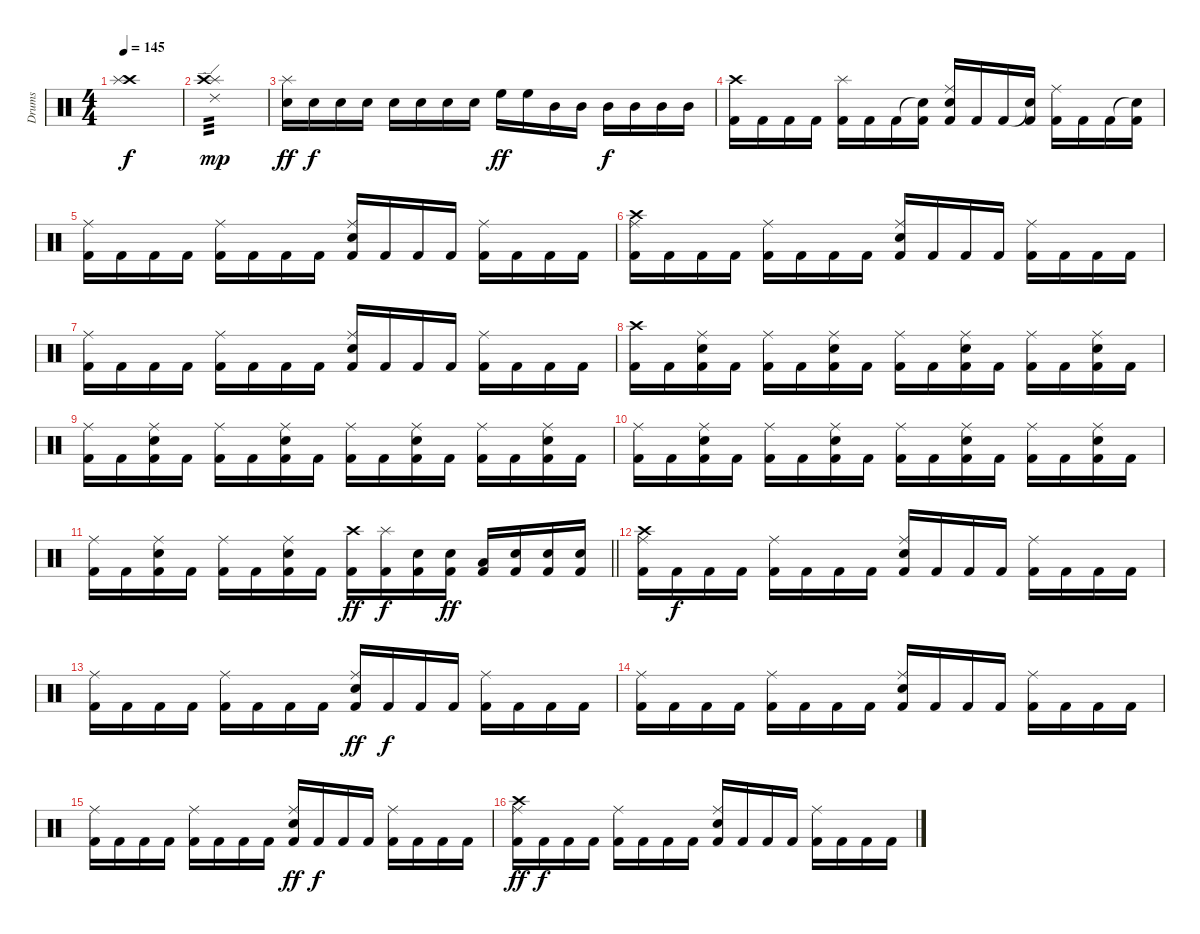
\track ("Drums" "Drums") {instrument percussion}
\staff {score}
\articulation defaults
\ts (4 4)
\tempo 145
\clef neutral
\ks c
("Crash high (hit)" "Splash (hit)").1{dy f} |
("Ride (edge) 2" "Splash (hit)" "Crash high (hit)").1{tp 3 dy mp} |
("Snare (hit) 2" "Splash (hit)").16{dy ff} "Snare (hit) 2".16{dy f} "Snare (hit) 2".16 "Snare (hit) 2".16 "Snare (hit) 2".16 "Snare (hit) 2".16 "Snare (hit) 2".16 "Snare (hit) 2".16 "High Floor Tom (hit)".16{dy ff} "High Floor Tom (hit)".16 "Mid Tom (hit)".16 "Mid Tom (hit)".16 "Mid Tom (hit)".16{dy f} "Mid Tom (hit)".16 "Mid Tom (hit)".16 "Mid Tom (hit)".16 |
("Crash high (hit)" "Kick (hit) 2").16 "Kick (hit) 2".16 "Kick (hit) 2".16 "Kick (hit) 2".16 ("Splash (hit)" "Kick (hit) 2").16 "Kick (hit) 2".16 "Kick (hit) 2".16 ("Snare (hit)"{t} "Kick (hit) 2").16 ("Ride (middle)" "Electric Snare (hit)" "Kick (hit) 2").16 "Kick (hit) 2".16 "Kick (hit) 2".16 ("Snare (hit)"{t} "Kick (hit) 2").16 ("Ride (middle)" "Kick (hit) 2").16 "Kick (hit) 2".16 "Kick (hit) 2".16 ("Snare (hit)"{t} "Kick (hit) 2").16 |
("Ride (middle)" "Kick (hit) 2").16 "Kick (hit) 2".16 "Kick (hit) 2".16 "Kick (hit) 2".16 ("Ride (middle)" "Kick (hit) 2").16 "Kick (hit) 2".16 "Kick (hit) 2".16 "Kick (hit) 2".16 ("Ride (middle)" "Electric Snare (hit)" "Kick (hit) 2").16 "Kick (hit) 2".16 "Kick (hit) 2".16 "Kick (hit) 2".16 ("Ride (middle)" "Kick (hit) 2").16 "Kick (hit) 2".16 "Kick (hit) 2".16 "Kick (hit) 2".16 |
("Crash high (hit)" "Ride (middle)" "Kick (hit) 2").16 "Kick (hit) 2".16 "Kick (hit) 2".16 "Kick (hit) 2".16 ("Ride (middle)" "Kick (hit) 2").16 "Kick (hit) 2".16 "Kick (hit) 2".16 "Kick (hit) 2".16 ("Ride (middle)" "Electric Snare (hit)" "Kick (hit) 2").16 "Kick (hit) 2".16 "Kick (hit) 2".16 "Kick (hit) 2".16 ("Ride (middle)" "Kick (hit) 2").16 "Kick (hit) 2".16 "Kick (hit) 2".16 "Kick (hit) 2".16 |
("Ride (middle)" "Kick (hit) 2").16 "Kick (hit) 2".16 "Kick (hit) 2".16 "Kick (hit) 2".16 ("Ride (middle)" "Kick (hit) 2").16 "Kick (hit) 2".16 "Kick (hit) 2".16 "Kick (hit) 2".16 ("Ride (middle)" "Electric Snare (hit)" "Kick (hit) 2").16 "Kick (hit) 2".16 "Kick (hit) 2".16 "Kick (hit) 2".16 ("Ride (middle)" "Kick (hit) 2").16 "Kick (hit) 2".16 "Kick (hit) 2".16 "Kick (hit) 2".16 |
("Crash high (hit)" "Kick (hit) 2").16 "Kick (hit) 2".16 ("Ride (middle)" "Electric Snare (hit)" "Kick (hit) 2").16 "Kick (hit) 2".16 ("Ride (middle)" "Kick (hit) 2").16 "Kick (hit) 2".16 ("Ride (middle)" "Electric Snare (hit)" "Kick (hit) 2").16 "Kick (hit) 2".16 ("Ride (middle)" "Kick (hit) 2").16 "Kick (hit) 2".16 ("Ride (middle)" "Electric Snare (hit)" "Kick (hit) 2").16 "Kick (hit) 2".16 ("Ride (middle)" "Kick (hit) 2").16 "Kick (hit) 2".16 ("Ride (middle)" "Electric Snare (hit)" "Kick (hit) 2").16 "Kick (hit) 2".16 |
("Ride (middle)" "Kick (hit) 2").16 "Kick (hit) 2".16 ("Ride (middle)" "Electric Snare (hit)" "Kick (hit) 2").16 "Kick (hit) 2".16 ("Ride (middle)" "Kick (hit) 2").16 "Kick (hit) 2".16 ("Ride (middle)" "Electric Snare (hit)" "Kick (hit) 2").16 "Kick (hit) 2".16 ("Ride (middle)" "Kick (hit) 2").16 "Kick (hit) 2".16 ("Ride (middle)" "Electric Snare (hit)" "Kick (hit) 2").16 "Kick (hit) 2".16 ("Ride (middle)" "Kick (hit) 2").16 "Kick (hit) 2".16 ("Ride (middle)" "Electric Snare (hit)" "Kick (hit) 2").16 "Kick (hit) 2".16 |
("Ride (middle)" "Kick (hit) 2").16 "Kick (hit) 2".16 ("Ride (middle)" "Electric Snare (hit)" "Kick (hit) 2").16 "Kick (hit) 2".16 ("Ride (middle)" "Kick (hit) 2").16 "Kick (hit) 2".16 ("Ride (middle)" "Electric Snare (hit)" "Kick (hit) 2").16 "Kick (hit) 2".16 ("Ride (middle)" "Kick (hit) 2").16 "Kick (hit) 2".16 ("Ride (middle)" "Electric Snare (hit)" "Kick (hit) 2").16 "Kick (hit) 2".16 ("Ride (middle)" "Kick (hit) 2").16 "Kick (hit) 2".16 ("Ride (middle)" "Electric Snare (hit)" "Kick (hit) 2").16 "Kick (hit) 2".16 |
\barLineRight lightlight
("Ride (middle)" "Kick (hit) 2").16 "Kick (hit) 2".16 ("Ride (middle)" "Electric Snare (hit)" "Kick (hit) 2").16 "Kick (hit) 2".16 ("Ride (middle)" "Kick (hit) 2").16 "Kick (hit) 2".16 ("Ride (middle)" "Electric Snare (hit)" "Kick (hit) 2").16 "Kick (hit) 2".16 ("Crash high (hit)" "Kick (hit) 2").16{dy ff} ("Splash (hit)" "Kick (hit) 2").16{dy f} ("Snare (hit) 2" "Kick (hit) 2").16 ("Snare (hit) 2" "Kick (hit) 2").16{dy ff} ("Low Tom (hit)" "Kick (hit) 2").16 ("Snare (hit) 2" "Kick (hit) 2").16 ("Snare (hit) 2" "Kick (hit) 2").16 ("Snare (hit) 2" "Kick (hit) 2").16 |
\section ("" "")
("Crash high (hit)" "Ride (middle)" "Kick (hit) 2").16 "Kick (hit) 2".16{dy f} "Kick (hit) 2".16 "Kick (hit) 2".16 ("Ride (middle)" "Kick (hit) 2").16 "Kick (hit) 2".16 "Kick (hit) 2".16 "Kick (hit) 2".16 ("Ride (middle)" "Electric Snare (hit)" "Kick (hit) 2").16 "Kick (hit) 2".16 "Kick (hit) 2".16 "Kick (hit) 2".16 ("Ride (middle)" "Kick (hit) 2").16 "Kick (hit) 2".16 "Kick (hit) 2".16 "Kick (hit) 2".16 |
("Ride (middle)" "Kick (hit) 2").16 "Kick (hit) 2".16 "Kick (hit) 2".16 "Kick (hit) 2".16 ("Ride (middle)" "Kick (hit) 2").16 "Kick (hit) 2".16 "Kick (hit) 2".16 "Kick (hit) 2".16 ("Ride (middle)" "Electric Snare (hit)" "Kick (hit) 2").16{dy ff} "Kick (hit) 2".16{dy f} "Kick (hit) 2".16 "Kick (hit) 2".16 ("Ride (middle)" "Kick (hit) 2").16 "Kick (hit) 2".16 "Kick (hit) 2".16 "Kick (hit) 2".16 |
("Ride (middle)" "Kick (hit) 2").16 "Kick (hit) 2".16 "Kick (hit) 2".16 "Kick (hit) 2".16 ("Ride (middle)" "Kick (hit) 2").16 "Kick (hit) 2".16 "Kick (hit) 2".16 "Kick (hit) 2".16 ("Ride (middle)" "Electric Snare (hit)" "Kick (hit) 2").16 "Kick (hit) 2".16 "Kick (hit) 2".16 "Kick (hit) 2".16 ("Ride (middle)" "Kick (hit) 2").16 "Kick (hit) 2".16 "Kick (hit) 2".16 "Kick (hit) 2".16 |
("Ride (middle)" "Kick (hit) 2").16 "Kick (hit) 2".16 "Kick (hit) 2".16 "Kick (hit) 2".16 ("Ride (middle)" "Kick (hit) 2").16 "Kick (hit) 2".16 "Kick (hit) 2".16 "Kick (hit) 2".16 ("Ride (middle)" "Electric Snare (hit)" "Kick (hit) 2").16{dy ff} "Kick (hit) 2".16{dy f} "Kick (hit) 2".16 "Kick (hit) 2".16 ("Ride (middle)" "Kick (hit) 2").16 "Kick (hit) 2".16 "Kick (hit) 2".16 "Kick (hit) 2".16 |
("Crash high (hit)" "Ride (middle)" "Kick (hit) 2").16{dy ff} "Kick (hit) 2".16{dy f} "Kick (hit) 2".16 "Kick (hit) 2".16 ("Ride (middle)" "Kick (hit) 2").16 "Kick (hit) 2".16 "Kick (hit) 2".16 "Kick (hit) 2".16 ("Ride (middle)" "Electric Snare (hit)" "Kick (hit) 2").16 "Kick (hit) 2".16 "Kick (hit) 2".16 "Kick (hit) 2".16 ("Ride (middle)" "Kick (hit) 2").16 "Kick (hit) 2".16 "Kick (hit) 2".16 "Kick (hit) 2".16
